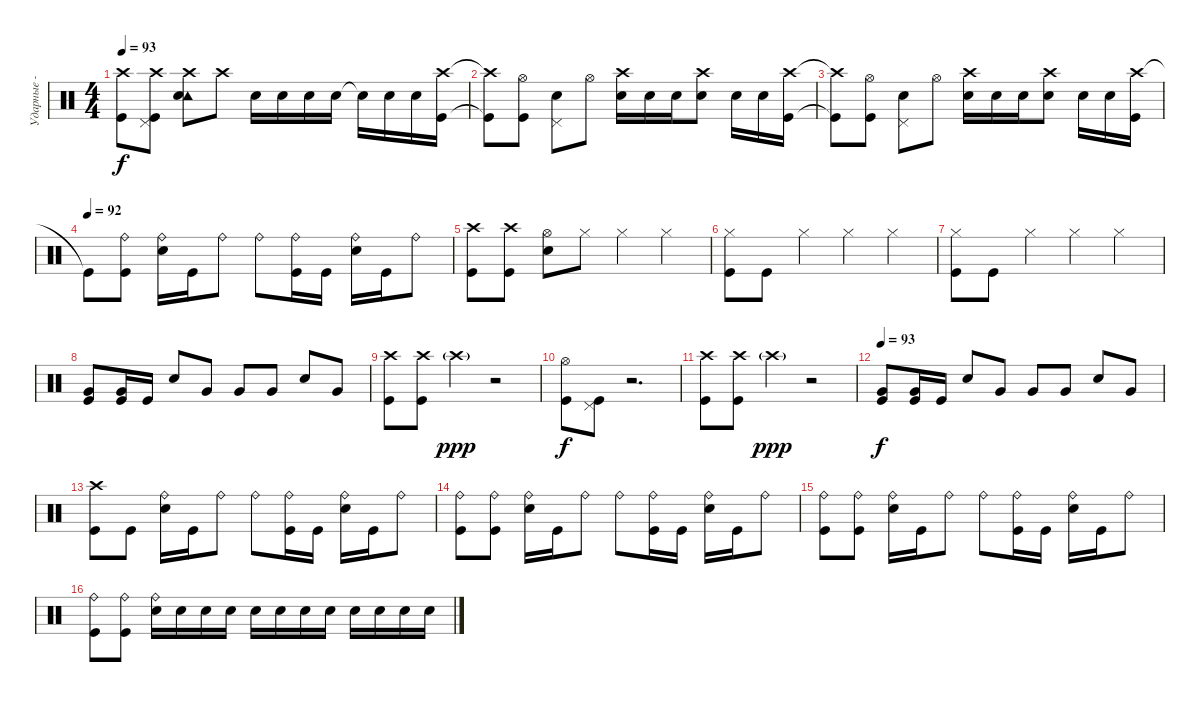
\track ("Ударные - Джек Уайт" "Ударные - ") {instrument percussion}
\staff {score}
\articulation defaults
\ts (4 4)
\tempo 93
\clef neutral
\ks c
("Crash high (hit)" "Kick (hit)").8{dy f} ("Crash high (hit)" "Pedal Hi-Hat (hit)" "Kick (hit)").8 ("Crash high (hit)" "Tambourine (hit)" "Electric Snare (hit)").8 "Crash high (hit)".8 "Electric Snare (hit)".16 "Electric Snare (hit)".16 "Snare (hit) 2".16 "Electric Snare (hit)".16 "Electric Snare (hit)"{t}.16 "Snare (hit) 2".16 "Electric Snare (hit)".16 ("Crash high (hit)" "Kick (hit)").16 |
("Crash high (hit)"{t} "Kick (hit)"{t}).8 ("Hi-Hat (open)" "Kick (hit)").8 ("Pedal Hi-Hat (hit)" "Electric Snare (hit)").8 "Hi-Hat (open)".8 ("Crash high (hit)" "Electric Snare (hit)").16 "Electric Snare (hit)".16 "Snare (hit) 2".16 ("Crash high (hit)" "Electric Snare (hit)").8 "Snare (hit) 2".16 "Electric Snare (hit)".16 ("Crash high (hit)" "Kick (hit)").16 |
("Crash high (hit)"{t} "Kick (hit)"{t}).8 ("Hi-Hat (open)" "Kick (hit)").8 ("Pedal Hi-Hat (hit)" "Electric Snare (hit)").8 "Hi-Hat (open)".8 ("Crash high (hit)" "Electric Snare (hit)").16 "Electric Snare (hit)".16 "Snare (hit) 2".16 ("Crash high (hit)" "Electric Snare (hit)").8 "Snare (hit) 2".16 "Electric Snare (hit)".16 ("Crash high (hit)" "Kick (hit)").16 |
\tempo (92)
"Kick (hit)"{t}.8 ("Ride (bell)" "Kick (hit)").8 ("Ride (bell)" "Electric Snare (hit)").16 "Kick (hit)".16 "Ride (bell)".8 "Ride (bell)".8 ("Ride (bell)" "Kick (hit)").16 "Kick (hit)".16 ("Ride (bell)" "Electric Snare (hit)").16 "Kick (hit)".16 "Ride (bell)".8 |
("Crash high (hit)" "Kick (hit)").8 ("Crash high (hit)" "Kick (hit)").8 ("Hi-Hat (open)" "Electric Snare (hit)").8 "Hi-Hat (closed)".8 "Hi-Hat (closed)".4 "Hi-Hat (closed)".4 |
("Hi-Hat (closed)" "Kick (hit)").8 "Kick (hit)".8 "Hi-Hat (closed)".4 "Hi-Hat (closed)".4 "Hi-Hat (closed)".4 |
("Hi-Hat (closed)" "Kick (hit)").8 "Kick (hit)".8 "Hi-Hat (closed)".4 "Hi-Hat (closed)".4 "Hi-Hat (closed)".4 |
("Very Low Tom (hit)" "Kick (hit)").8 ("Very Low Tom (hit)" "Kick (hit)").16 "Kick (hit)".16 "Electric Snare (hit)".8 "Very Low Tom (hit)".8 "Very Low Tom (hit)".8 "Very Low Tom (hit)".8 "Electric Snare (hit)".8 "Very Low Tom (hit)".8 |
("Crash high (hit)" "Kick (hit)").8 ("Crash high (hit)" "Kick (hit)").8 "Crash high (hit)"{g}.4{dy ppp} r.2 |
("Hi-Hat (open)" "Kick (hit)").8{dy f} ("Pedal Hi-Hat (hit)" "Kick (hit)").8 r.2{d} |
("Crash high (hit)" "Kick (hit)").8 ("Crash high (hit)" "Kick (hit)").8 "Crash high (hit)"{g}.4{dy ppp} r.2 |
\tempo 93
("Very Low Tom (hit)" "Kick (hit)").8{dy f} ("Very Low Tom (hit)" "Kick (hit)").16 "Kick (hit)".16 "Electric Snare (hit)".8 "Very Low Tom (hit)".8 "Very Low Tom (hit)".8 "Very Low Tom (hit)".8 "Electric Snare (hit)".8 "Very Low Tom (hit)".8 |
("Crash high (hit)" "Kick (hit)").8 "Kick (hit)".8 ("Ride (bell)" "Electric Snare (hit)").16 "Kick (hit)".16 "Ride (bell)".8 "Ride (bell)".8 ("Ride (bell)" "Kick (hit)").16 "Kick (hit)".16 ("Ride (bell)" "Electric Snare (hit)").16 "Kick (hit)".16 "Ride (bell)".8 |
("Ride (bell)" "Kick (hit)").8 ("Ride (bell)" "Kick (hit)").8 ("Ride (bell)" "Electric Snare (hit)").16 "Kick (hit)".16 "Ride (bell)".8 "Ride (bell)".8 ("Ride (bell)" "Kick (hit)").16 "Kick (hit)".16 ("Ride (bell)" "Electric Snare (hit)").16 "Kick (hit)".16 "Ride (bell)".8 |
("Ride (bell)" "Kick (hit)").8 ("Ride (bell)" "Kick (hit)").8 ("Ride (bell)" "Electric Snare (hit)").16 "Kick (hit)".16 "Ride (bell)".8 "Ride (bell)".8 ("Ride (bell)" "Kick (hit)").16 "Kick (hit)".16 ("Ride (bell)" "Electric Snare (hit)").16 "Kick (hit)".16 "Ride (bell)".8 |
("Ride (bell)" "Kick (hit)").8 ("Ride (bell)" "Kick (hit)").8 ("Ride (bell)" "Electric Snare (hit)").16 "Snare (hit) 2".16 "Electric Snare (hit)".16 "Snare (hit) 2".16 "Electric Snare (hit)".16 "Snare (hit) 2".16 "Electric Snare (hit)".16 "Electric Snare (hit)".16 "Electric Snare (hit)".16 "Electric Snare (hit)".16 "Electric Snare (hit)".16 "Electric Snare (hit)".16
